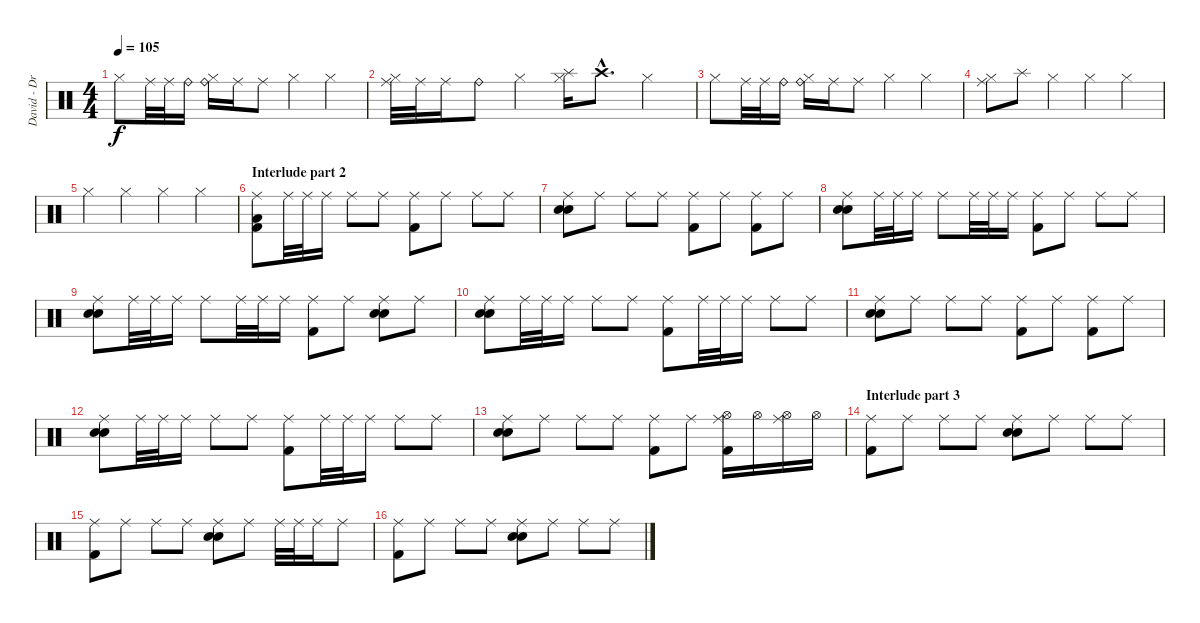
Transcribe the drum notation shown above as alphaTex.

\track ("David - Drums" "David - Dr") {instrument percussion}
\staff {score}
\articulation defaults
\ts (4 4)
\tempo 105
\clef neutral
\ks c "Hi-Hat (closed)".8{dy f} "Ride (middle)".32 "Ride (middle)".32 "Ride (bell)".16
("Ride (bell)" "Hi-Hat (closed)").16 "Ride (middle)".16 "Ride (middle)".8 "Hi-Hat (closed)".4 "Hi-Hat (closed)".4 |
("Ride (middle)" "Hi-Hat (closed)").32 "Ride (middle)".32 "Ride (middle)".16 "Ride (bell)".8 "Hi-Hat (closed)".4 ("Splash (hit)" "Hi-Hat (closed)").16 "Crash high (hit)"{hac}.8{d} "Hi-Hat (closed)".4 |
"Hi-Hat (closed)".8 "Ride (middle)".32 "Ride (middle)".32 "Ride (bell)".16 ("Ride (bell)" "Hi-Hat (closed)").16 "Ride (middle)".16 "Ride (middle)".8 "Hi-Hat (closed)".4 "Hi-Hat (closed)".4 |
("Ride (middle)" "Hi-Hat (closed)").8 "Splash (hit)".8 "Hi-Hat (closed)".4 "Hi-Hat (closed)".4 "Hi-Hat (closed)".4 |
"Hi-Hat (closed)".4 "Hi-Hat (closed)".4 "Hi-Hat (closed)".4 "Hi-Hat (closed)".4 |
\section ("" "Interlude part 2")
("Ride (middle)" "Low Floor Tom (hit)" "Kick (hit) 2").8 "Ride (middle)".32 "Ride (middle)".32 "Ride (middle)".16 "Ride (middle)".8 "Ride (middle)".8 ("Ride (middle)" "Kick (hit) 2").8 "Ride (middle)".8 "Ride (middle)".8 "Ride (middle)".8 |
("Ride (middle)" "Electric Snare (hit)" "Snare (hit) 2").8 "Ride (middle)".8 "Ride (middle)".8 "Ride (middle)".8 ("Ride (middle)" "Kick (hit) 2").8 "Ride (middle)".8 ("Ride (middle)" "Kick (hit) 2").8 "Ride (middle)".8 |
("Ride (middle)" "Electric Snare (hit)" "Snare (hit) 2").8 "Ride (middle)".32 "Ride (middle)".32 "Ride (middle)".16 "Ride (middle)".8 "Ride (middle)".32 "Ride (middle)".32 "Ride (middle)".16 ("Ride (middle)" "Kick (hit) 2").8 "Ride (middle)".8 "Ride (middle)".8 "Ride (middle)".8 |
("Ride (middle)" "Electric Snare (hit)" "Snare (hit) 2").8 "Ride (middle)".32 "Ride (middle)".32 "Ride (middle)".16 "Ride (middle)".8 "Ride (middle)".32 "Ride (middle)".32 "Ride (middle)".16 ("Ride (middle)" "Kick (hit) 2").8 "Ride (middle)".8 ("Ride (middle)" "Electric Snare (hit)" "Snare (hit) 2").8 "Ride (middle)".8 |
("Ride (middle)" "Electric Snare (hit)" "Snare (hit) 2").8 "Ride (middle)".32 "Ride (middle)".32 "Ride (middle)".16 "Ride (middle)".8 "Ride (middle)".8 ("Ride (middle)" "Kick (hit) 2").8 "Ride (middle)".32 "Ride (middle)".32 "Ride (middle)".16 "Ride (middle)".8 "Ride (middle)".8 |
("Ride (middle)" "Electric Snare (hit)" "Snare (hit) 2").8 "Ride (middle)".8 "Ride (middle)".8 "Ride (middle)".8 ("Ride (middle)" "Kick (hit) 2").8 "Ride (middle)".8 ("Ride (middle)" "Kick (hit) 2").8 "Ride (middle)".8 |
("Ride (middle)" "Electric Snare (hit)" "Snare (hit) 2").8 "Ride (middle)".32 "Ride (middle)".32 "Ride (middle)".16 "Ride (middle)".8 "Ride (middle)".8 ("Ride (middle)" "Kick (hit) 2").8 "Ride (middle)".32 "Ride (middle)".32 "Ride (middle)".16 "Ride (middle)".8 "Ride (middle)".8 |
("Ride (middle)" "Electric Snare (hit)" "Snare (hit) 2").8 "Ride (middle)".8 "Ride (middle)".8 "Ride (middle)".8 ("Ride (middle)" "Kick (hit) 2").8 "Ride (middle)".8 ("Ride (middle)" "Hi-Hat (open)" "Kick (hit) 2").16 "Hi-Hat (open)".16 ("Ride (middle)" "Hi-Hat (open)").16 "Hi-Hat (open)".16 |
\section ("" "Interlude part 3")
("Ride (middle)" "Kick (hit) 2").8 "Ride (middle)".8 "Ride (middle)".8 "Ride (middle)".8 ("Ride (middle)" "Electric Snare (hit)" "Snare (hit) 2").8 "Ride (middle)".8 "Ride (middle)".8 "Ride (middle)".8 |
("Ride (middle)" "Kick (hit) 2").8 "Ride (middle)".8 "Ride (middle)".8 "Ride (middle)".8 ("Ride (middle)" "Electric Snare (hit)" "Snare (hit) 2").8 "Ride (middle)".8 "Ride (middle)".32 "Ride (middle)".32 "Ride (middle)".16 "Ride (middle)".8 |
("Ride (middle)" "Kick (hit) 2").8 "Ride (middle)".8 "Ride (middle)".8 "Ride (middle)".8 ("Ride (middle)" "Electric Snare (hit)" "Snare (hit) 2").8 "Ride (middle)".8 "Ride (middle)".8 "Ride (middle)".8
